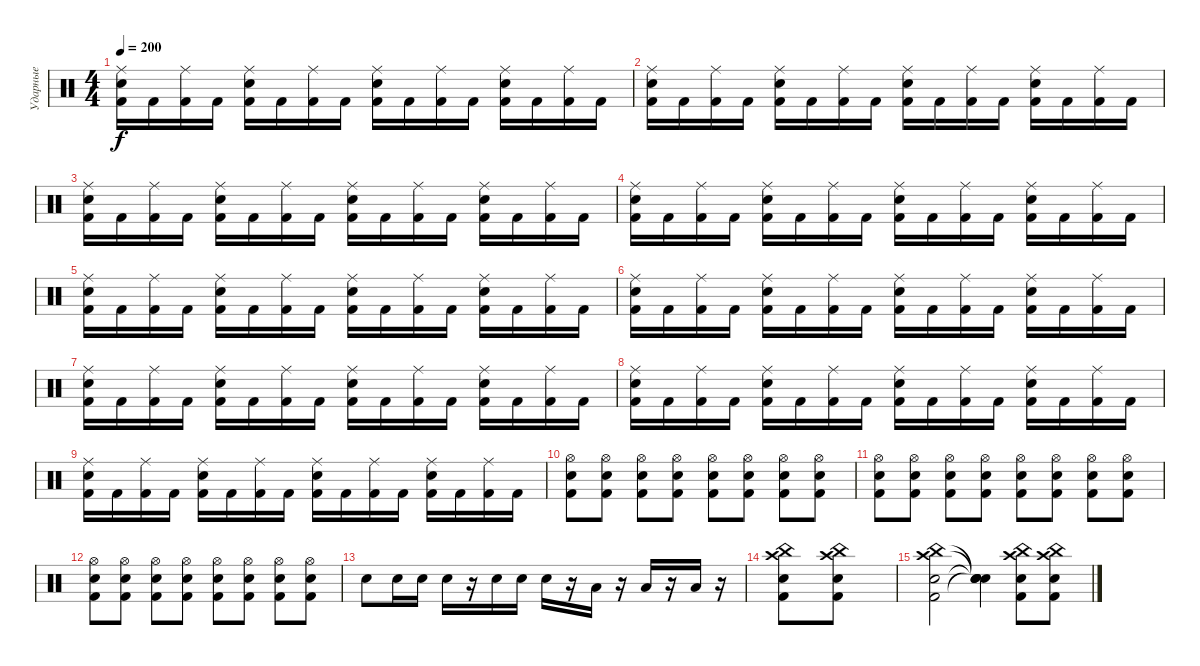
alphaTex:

\track ("Ударные" "Ударные") {instrument percussion}
\staff {score}
\articulation defaults
\ts (4 4)
\tempo 200
\clef neutral
\ks c
("Kick (hit) 2" "Electric Snare (hit)" "Ride (middle)").16{dy f} "Kick (hit) 2".16 ("Kick (hit) 2" "Ride (middle)").16 "Kick (hit) 2".16 ("Kick (hit) 2" "Electric Snare (hit)" "Ride (middle)").16 "Kick (hit) 2".16 ("Kick (hit) 2" "Ride (middle)").16 "Kick (hit) 2".16 ("Kick (hit) 2" "Electric Snare (hit)" "Ride (middle)").16 "Kick (hit) 2".16 ("Kick (hit) 2" "Ride (middle)").16 "Kick (hit) 2".16 ("Kick (hit) 2" "Electric Snare (hit)" "Ride (middle)").16 "Kick (hit) 2".16 ("Kick (hit) 2" "Ride (middle)").16 "Kick (hit) 2".16 |
("Kick (hit) 2" "Electric Snare (hit)" "Ride (middle)").16 "Kick (hit) 2".16 ("Kick (hit) 2" "Ride (middle)").16 "Kick (hit) 2".16 ("Kick (hit) 2" "Electric Snare (hit)" "Ride (middle)").16 "Kick (hit) 2".16 ("Kick (hit) 2" "Ride (middle)").16 "Kick (hit) 2".16 ("Kick (hit) 2" "Electric Snare (hit)" "Ride (middle)").16 "Kick (hit) 2".16 ("Kick (hit) 2" "Ride (middle)").16 "Kick (hit) 2".16 ("Kick (hit) 2" "Electric Snare (hit)" "Ride (middle)").16 "Kick (hit) 2".16 ("Kick (hit) 2" "Ride (middle)").16 "Kick (hit) 2".16 |
("Kick (hit) 2" "Electric Snare (hit)" "Ride (middle)").16 "Kick (hit) 2".16 ("Kick (hit) 2" "Ride (middle)").16 "Kick (hit) 2".16 ("Kick (hit) 2" "Electric Snare (hit)" "Ride (middle)").16 "Kick (hit) 2".16 ("Kick (hit) 2" "Ride (middle)").16 "Kick (hit) 2".16 ("Kick (hit) 2" "Electric Snare (hit)" "Ride (middle)").16 "Kick (hit) 2".16 ("Kick (hit) 2" "Ride (middle)").16 "Kick (hit) 2".16 ("Kick (hit) 2" "Electric Snare (hit)" "Ride (middle)").16 "Kick (hit) 2".16 ("Kick (hit) 2" "Ride (middle)").16 "Kick (hit) 2".16 |
("Kick (hit) 2" "Electric Snare (hit)" "Ride (middle)").16 "Kick (hit) 2".16 ("Kick (hit) 2" "Ride (middle)").16 "Kick (hit) 2".16 ("Kick (hit) 2" "Electric Snare (hit)" "Ride (middle)").16 "Kick (hit) 2".16 ("Kick (hit) 2" "Ride (middle)").16 "Kick (hit) 2".16 ("Kick (hit) 2" "Electric Snare (hit)" "Ride (middle)").16 "Kick (hit) 2".16 ("Kick (hit) 2" "Ride (middle)").16 "Kick (hit) 2".16 ("Kick (hit) 2" "Electric Snare (hit)" "Ride (middle)").16 "Kick (hit) 2".16 ("Kick (hit) 2" "Ride (middle)").16 "Kick (hit) 2".16 |
("Kick (hit) 2" "Electric Snare (hit)" "Ride (middle)").16 "Kick (hit) 2".16 ("Kick (hit) 2" "Ride (middle)").16 "Kick (hit) 2".16 ("Kick (hit) 2" "Electric Snare (hit)" "Ride (middle)").16 "Kick (hit) 2".16 ("Kick (hit) 2" "Ride (middle)").16 "Kick (hit) 2".16 ("Kick (hit) 2" "Electric Snare (hit)" "Ride (middle)").16 "Kick (hit) 2".16 ("Kick (hit) 2" "Ride (middle)").16 "Kick (hit) 2".16 ("Kick (hit) 2" "Electric Snare (hit)" "Ride (middle)").16 "Kick (hit) 2".16 ("Kick (hit) 2" "Ride (middle)").16 "Kick (hit) 2".16 |
("Kick (hit) 2" "Electric Snare (hit)" "Ride (middle)").16 "Kick (hit) 2".16 ("Kick (hit) 2" "Ride (middle)").16 "Kick (hit) 2".16 ("Kick (hit) 2" "Electric Snare (hit)" "Ride (middle)").16 "Kick (hit) 2".16 ("Kick (hit) 2" "Ride (middle)").16 "Kick (hit) 2".16 ("Kick (hit) 2" "Electric Snare (hit)" "Ride (middle)").16 "Kick (hit) 2".16 ("Kick (hit) 2" "Ride (middle)").16 "Kick (hit) 2".16 ("Kick (hit) 2" "Electric Snare (hit)" "Ride (middle)").16 "Kick (hit) 2".16 ("Kick (hit) 2" "Ride (middle)").16 "Kick (hit) 2".16 |
("Kick (hit) 2" "Electric Snare (hit)" "Ride (middle)").16 "Kick (hit) 2".16 ("Kick (hit) 2" "Ride (middle)").16 "Kick (hit) 2".16 ("Kick (hit) 2" "Electric Snare (hit)" "Ride (middle)").16 "Kick (hit) 2".16 ("Kick (hit) 2" "Ride (middle)").16 "Kick (hit) 2".16 ("Kick (hit) 2" "Electric Snare (hit)" "Ride (middle)").16 "Kick (hit) 2".16 ("Kick (hit) 2" "Ride (middle)").16 "Kick (hit) 2".16 ("Kick (hit) 2" "Electric Snare (hit)" "Ride (middle)").16 "Kick (hit) 2".16 ("Kick (hit) 2" "Ride (middle)").16 "Kick (hit) 2".16 |
("Kick (hit) 2" "Electric Snare (hit)" "Ride (middle)").16 "Kick (hit) 2".16 ("Kick (hit) 2" "Ride (middle)").16 "Kick (hit) 2".16 ("Kick (hit) 2" "Electric Snare (hit)" "Ride (middle)").16 "Kick (hit) 2".16 ("Kick (hit) 2" "Ride (middle)").16 "Kick (hit) 2".16 ("Kick (hit) 2" "Electric Snare (hit)" "Ride (middle)").16 "Kick (hit) 2".16 ("Kick (hit) 2" "Ride (middle)").16 "Kick (hit) 2".16 ("Kick (hit) 2" "Electric Snare (hit)" "Ride (middle)").16 "Kick (hit) 2".16 ("Kick (hit) 2" "Ride (middle)").16 "Kick (hit) 2".16 |
("Kick (hit) 2" "Electric Snare (hit)" "Ride (middle)").16 "Kick (hit) 2".16 ("Kick (hit) 2" "Ride (middle)").16 "Kick (hit) 2".16 ("Kick (hit) 2" "Electric Snare (hit)" "Ride (middle)").16 "Kick (hit) 2".16 ("Kick (hit) 2" "Ride (middle)").16 "Kick (hit) 2".16 ("Kick (hit) 2" "Electric Snare (hit)" "Ride (middle)").16 "Kick (hit) 2".16 ("Kick (hit) 2" "Ride (middle)").16 "Kick (hit) 2".16 ("Kick (hit) 2" "Electric Snare (hit)" "Ride (middle)").16 "Kick (hit) 2".16 ("Kick (hit) 2" "Ride (middle)").16 "Kick (hit) 2".16 |
("Kick (hit) 2" "Electric Snare (hit)" "Hi-Hat (open)").8 ("Hi-Hat (open)" "Kick (hit) 2" "Electric Snare (hit)").8 ("Electric Snare (hit)" "Kick (hit) 2" "Hi-Hat (open)").8 ("Hi-Hat (open)" "Kick (hit) 2" "Electric Snare (hit)").8 ("Electric Snare (hit)" "Kick (hit) 2" "Hi-Hat (open)").8 ("Hi-Hat (open)" "Kick (hit) 2" "Electric Snare (hit)").8 ("Electric Snare (hit)" "Kick (hit) 2" "Hi-Hat (open)").8 ("Hi-Hat (open)" "Kick (hit) 2" "Electric Snare (hit)").8 |
("Kick (hit) 2" "Electric Snare (hit)" "Hi-Hat (open)").8 ("Hi-Hat (open)" "Kick (hit) 2" "Electric Snare (hit)").8 ("Electric Snare (hit)" "Kick (hit) 2" "Hi-Hat (open)").8 ("Hi-Hat (open)" "Kick (hit) 2" "Electric Snare (hit)").8 ("Electric Snare (hit)" "Kick (hit) 2" "Hi-Hat (open)").8 ("Hi-Hat (open)" "Kick (hit) 2" "Electric Snare (hit)").8 ("Electric Snare (hit)" "Kick (hit) 2" "Hi-Hat (open)").8 ("Hi-Hat (open)" "Kick (hit) 2" "Electric Snare (hit)").8 |
("Kick (hit) 2" "Electric Snare (hit)" "Hi-Hat (open)").8 ("Hi-Hat (open)" "Kick (hit) 2" "Electric Snare (hit)").8 ("Electric Snare (hit)" "Kick (hit) 2" "Hi-Hat (open)").8 ("Hi-Hat (open)" "Kick (hit) 2" "Electric Snare (hit)").8 ("Electric Snare (hit)" "Kick (hit) 2" "Hi-Hat (open)").8 ("Hi-Hat (open)" "Kick (hit) 2" "Electric Snare (hit)").8 ("Electric Snare (hit)" "Kick (hit) 2" "Hi-Hat (open)").8 ("Hi-Hat (open)" "Kick (hit) 2" "Electric Snare (hit)").8 |
"Snare (hit) 2".8 "Snare (hit) 2".16 "Snare (hit) 2".16 "Snare (hit) 2".16 r.16 "Snare (hit) 2".16 "Snare (hit) 2".16 "Snare (hit) 2".16 r.16 "Low Tom (hit)".16 r.16 "Low Tom (hit)".16 r.16 "Low Tom (hit)".16 r.16 |
("Kick (hit) 2" "Electric Snare (hit)" "Crash high (hit)" "China (hit)").8 ("Crash high (hit)" "Kick (hit) 2" "Electric Snare (hit)" "China (hit)").8 |
("China (hit)" "Crash high (hit)" "Kick (hit) 2" "Electric Snare (hit)").2 ("Snare (hit)"{t} "Snare (hit)"{t} "Snare (hit)"{t} "Snare (hit)"{t}).4 ("China (hit)" "Crash high (hit)" "Kick (hit) 2" "Electric Snare (hit)").8 ("Electric Snare (hit)" "Kick (hit) 2" "Crash high (hit)" "China (hit)").8
